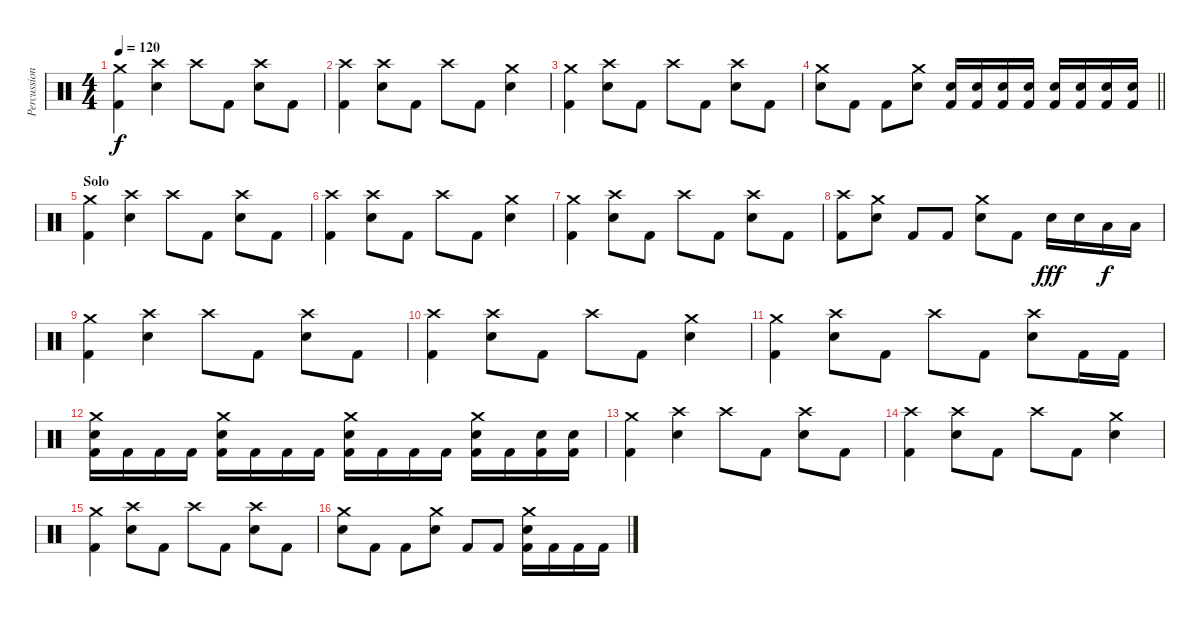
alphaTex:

\track ("Percussion" "Percussion") {instrument percussion}
\staff {score}
\articulation defaults
\ts (4 4)
\tempo 120
\clef neutral
\ks c
("Crash medium (hit)" "Kick (hit) 2").4{dy f} ("Crash high (hit)" "Snare (hit) 2").4 "Crash high (hit)".8 "Kick (hit) 2".8 ("Crash high (hit)" "Snare (hit) 2").8 "Kick (hit) 2".8 |
("Crash high (hit)" "Kick (hit) 2").4 ("Crash high (hit)" "Snare (hit) 2").8 "Kick (hit) 2".8 "Crash high (hit)".8 "Kick (hit) 2".8 ("Crash medium (hit)" "Snare (hit) 2").4 |
("Crash medium (hit)" "Kick (hit) 2").4 ("Crash high (hit)" "Snare (hit) 2").8 "Kick (hit) 2".8 "Crash high (hit)".8 "Kick (hit) 2".8 ("Crash high (hit)" "Snare (hit) 2").8 "Kick (hit) 2".8 |
\barLineRight lightlight
("Crash medium (hit)" "Snare (hit) 2").8 "Kick (hit) 2".8 "Kick (hit) 2".8 ("Crash medium (hit)" "Snare (hit) 2").8 ("Snare (hit) 2" "Kick (hit) 2").16 ("Snare (hit) 2" "Kick (hit) 2").16 ("Snare (hit) 2" "Kick (hit) 2").16 ("Snare (hit) 2" "Kick (hit) 2").16 ("Snare (hit) 2" "Kick (hit) 2").16 ("Snare (hit) 2" "Kick (hit) 2").16 ("Snare (hit) 2" "Kick (hit) 2").16 ("Snare (hit) 2" "Kick (hit) 2").16 |
\section ("" "Solo")
("Crash medium (hit)" "Kick (hit) 2").4 ("Crash high (hit)" "Snare (hit) 2").4 "Crash high (hit)".8 "Kick (hit) 2".8 ("Crash high (hit)" "Snare (hit) 2").8 "Kick (hit) 2".8 |
("Crash high (hit)" "Kick (hit) 2").4 ("Crash high (hit)" "Snare (hit) 2").8 "Kick (hit) 2".8 "Crash high (hit)".8 "Kick (hit) 2".8 ("Crash medium (hit)" "Snare (hit) 2").4 |
("Crash medium (hit)" "Kick (hit) 2").4 ("Crash high (hit)" "Snare (hit) 2").8 "Kick (hit) 2".8 "Crash high (hit)".8 "Kick (hit) 2".8 ("Crash high (hit)" "Snare (hit) 2").8 "Kick (hit) 2".8 |
("Crash high (hit)" "Kick (hit) 2").8 ("Crash medium (hit)" "Snare (hit) 2").8 "Kick (hit) 2".8 "Kick (hit) 2".8 ("Crash medium (hit)" "Snare (hit) 2").8 "Kick (hit) 2".8 "Snare (hit) 2".16{dy fff} "Snare (hit) 2".16 "Low Tom (hit)".16{dy f} "Low Tom (hit)".16 |
("Crash medium (hit)" "Kick (hit) 2").4 ("Crash high (hit)" "Snare (hit) 2").4 "Crash high (hit)".8 "Kick (hit) 2".8 ("Crash high (hit)" "Snare (hit) 2").8 "Kick (hit) 2".8 |
("Crash high (hit)" "Kick (hit) 2").4 ("Crash high (hit)" "Snare (hit) 2").8 "Kick (hit) 2".8 "Crash high (hit)".8 "Kick (hit) 2".8 ("Crash medium (hit)" "Snare (hit) 2").4 |
("Crash medium (hit)" "Kick (hit) 2").4 ("Crash high (hit)" "Snare (hit) 2").8 "Kick (hit) 2".8 "Crash high (hit)".8 "Kick (hit) 2".8 ("Crash high (hit)" "Snare (hit) 2").8 "Kick (hit) 2".16 "Kick (hit) 2".16 |
("Crash medium (hit)" "Snare (hit) 2" "Kick (hit) 2").16 "Kick (hit) 2".16 "Kick (hit) 2".16 "Kick (hit) 2".16 ("Crash medium (hit)" "Snare (hit) 2" "Kick (hit) 2").16 "Kick (hit) 2".16 "Kick (hit) 2".16 "Kick (hit) 2".16 ("Crash medium (hit)" "Snare (hit) 2" "Kick (hit) 2").16 "Kick (hit) 2".16 "Kick (hit) 2".16 "Kick (hit) 2".16 ("Crash medium (hit)" "Snare (hit) 2" "Kick (hit) 2").16 "Kick (hit) 2".16 ("Snare (hit) 2" "Kick (hit) 2").16 ("Snare (hit) 2" "Kick (hit) 2").16 |
("Crash medium (hit)" "Kick (hit) 2").4 ("Crash high (hit)" "Snare (hit) 2").4 "Crash high (hit)".8 "Kick (hit) 2".8 ("Crash high (hit)" "Snare (hit) 2").8 "Kick (hit) 2".8 |
("Crash high (hit)" "Kick (hit) 2").4 ("Crash high (hit)" "Snare (hit) 2").8 "Kick (hit) 2".8 "Crash high (hit)".8 "Kick (hit) 2".8 ("Crash medium (hit)" "Snare (hit) 2").4 |
("Crash medium (hit)" "Kick (hit) 2").4 ("Crash high (hit)" "Snare (hit) 2").8 "Kick (hit) 2".8 "Crash high (hit)".8 "Kick (hit) 2".8 ("Crash high (hit)" "Snare (hit) 2").8 "Kick (hit) 2".8 |
("Crash medium (hit)" "Snare (hit) 2").8 "Kick (hit) 2".8 "Kick (hit) 2".8 ("Crash medium (hit)" "Snare (hit) 2").8 "Kick (hit) 2".8 "Kick (hit) 2".8 ("Crash medium (hit)" "Snare (hit) 2" "Kick (hit) 2").16 "Kick (hit) 2".16 "Kick (hit) 2".16 "Kick (hit) 2".16
